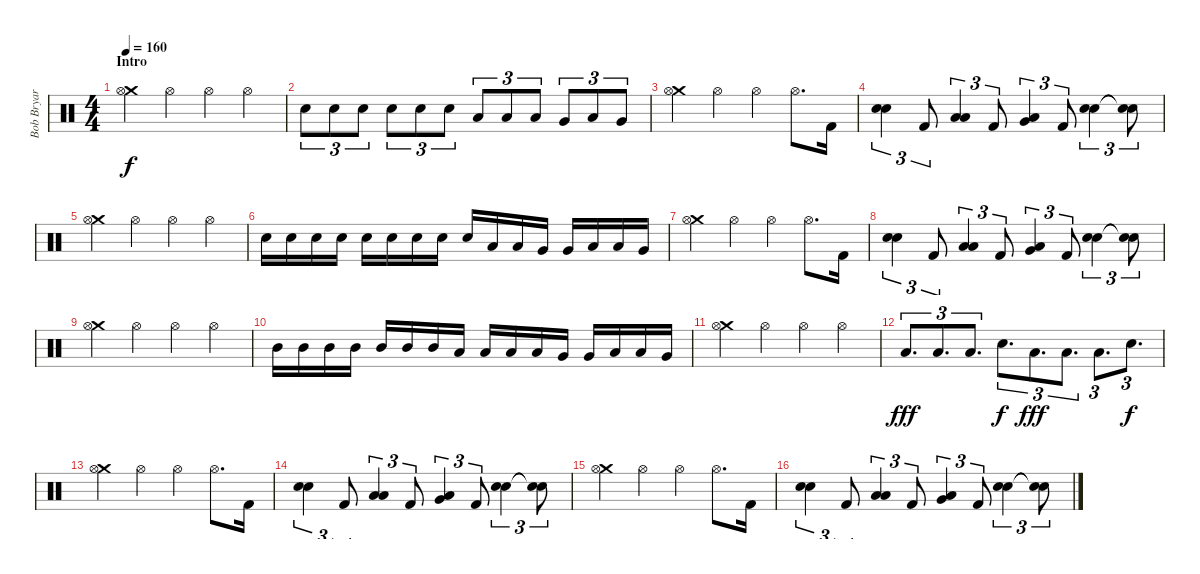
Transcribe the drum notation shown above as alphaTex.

\track ("Bob Bryar" "Bob Bryar") {instrument percussion}
\staff {score}
\articulation defaults
\ts (4 4)
\section ("" "Intro")
\tempo 160
\clef neutral
\ks c
("Crash medium (hit)" "Hi-Hat (open)").4{dy f} "Hi-Hat (open)".4 "Hi-Hat (open)".4 "Hi-Hat (open)".4 |
"Snare (hit) 2".8{tu (3 2)} "Snare (hit) 2".8{tu (3 2)} "Snare (hit) 2".8{tu (3 2)} "Snare (hit) 2".8{tu (3 2)} "Snare (hit) 2".8{tu (3 2)} "Snare (hit) 2".8{tu (3 2)} "Low Tom (hit)".8{tu (3 2)} "Low Tom (hit)".8{tu (3 2)} "Low Tom (hit)".8{tu (3 2)} "Very Low Tom (hit)".8{tu (3 2)} "Low Floor Tom (hit)".8{tu (3 2)} "Very Low Tom (hit)".8{tu (3 2)} |
("Crash medium (hit)" "Hi-Hat (open)").4 "Hi-Hat (open)".4 "Hi-Hat (open)".4 "Hi-Hat (open)".8{d} "Kick (hit) 2".16 |
("Electric Snare (hit)" "Snare (hit) 2").4{tu (3 2)} "Kick (hit) 2".8{tu (3 2)} ("Low Tom (hit)" "Low Floor Tom (hit)").4{tu (3 2)} "Kick (hit) 2".8{tu (3 2)} ("Very Low Tom (hit)" "Low Floor Tom (hit)").4{tu (3 2)} "Kick (hit) 2".8{tu (3 2)} ("Electric Snare (hit)" "Snare (hit) 2").4{tu (3 2)} ("Snare (hit)"{t} "Snare (hit)"{t}).8{tu (3 2)} |
("Crash medium (hit)" "Hi-Hat (open)").4 "Hi-Hat (open)".4 "Hi-Hat (open)".4 "Hi-Hat (open)".4 |
"Snare (hit) 2".16 "Snare (hit) 2".16 "Snare (hit) 2".16 "Snare (hit) 2".16 "Snare (hit) 2".16 "Snare (hit) 2".16 "Snare (hit) 2".16 "Snare (hit) 2".16 "Snare (hit) 2".16 "Low Tom (hit)".16 "Low Tom (hit)".16 "Very Low Tom (hit)".16 "Very Low Tom (hit)".16 "Low Floor Tom (hit)".16 "Low Floor Tom (hit)".16 "Very Low Tom (hit)".16 |
("Crash medium (hit)" "Hi-Hat (open)").4 "Hi-Hat (open)".4 "Hi-Hat (open)".4 "Hi-Hat (open)".8{d} "Kick (hit) 2".16 |
("Electric Snare (hit)" "Snare (hit) 2").4{tu (3 2)} "Kick (hit) 2".8{tu (3 2)} ("Low Tom (hit)" "Low Floor Tom (hit)").4{tu (3 2)} "Kick (hit) 2".8{tu (3 2)} ("Very Low Tom (hit)" "Low Floor Tom (hit)").4{tu (3 2)} "Kick (hit) 2".8{tu (3 2)} ("Electric Snare (hit)" "Snare (hit) 2").4{tu (3 2)} ("Snare (hit)"{t} "Snare (hit)"{t}).8{tu (3 2)} |
("Crash medium (hit)" "Hi-Hat (open)").4 "Hi-Hat (open)".4 "Hi-Hat (open)".4 "Hi-Hat (open)".4 |
"Mid Tom (hit)".16 "Mid Tom (hit)".16 "Mid Tom (hit)".16 "Mid Tom (hit)".16 "Mid Tom (hit)".16 "Mid Tom (hit)".16 "Mid Tom (hit)".16 "Low Floor Tom (hit)".16 "Low Tom (hit)".16 "Low Tom (hit)".16 "Low Tom (hit)".16 "Very Low Tom (hit)".16 "Very Low Tom (hit)".16 "Low Floor Tom (hit)".16 "Low Floor Tom (hit)".16 "Very Low Tom (hit)".16 |
("Crash medium (hit)" "Hi-Hat (open)").4 "Hi-Hat (open)".4 "Hi-Hat (open)".4 "Hi-Hat (open)".4 |
"Low Tom (hit)".8{d tu (3 2) dy fff} "Low Tom (hit)".8{d tu (3 2)} "Low Floor Tom (hit)".8{d tu (3 2)} "Snare (hit) 2".8{d tu (3 2) dy f} "Low Tom (hit)".8{d tu (3 2) dy fff} "Low Tom (hit)".8{d tu (3 2)} "Low Floor Tom (hit)".8{d tu (3 2)} "Snare (hit) 2".8{d tu (3 2) dy f} |
("Crash medium (hit)" "Hi-Hat (open)").4 "Hi-Hat (open)".4 "Hi-Hat (open)".4 "Hi-Hat (open)".8{d} "Kick (hit) 2".16 |
("Electric Snare (hit)" "Snare (hit) 2").4{tu (3 2)} "Kick (hit) 2".8{tu (3 2)} ("Low Tom (hit)" "Low Floor Tom (hit)").4{tu (3 2)} "Kick (hit) 2".8{tu (3 2)} ("Very Low Tom (hit)" "Low Floor Tom (hit)").4{tu (3 2)} "Kick (hit) 2".8{tu (3 2)} ("Electric Snare (hit)" "Snare (hit) 2").4{tu (3 2)} ("Snare (hit)"{t} "Snare (hit)"{t}).8{tu (3 2)} |
("Crash medium (hit)" "Hi-Hat (open)").4 "Hi-Hat (open)".4 "Hi-Hat (open)".4 "Hi-Hat (open)".8{d} "Kick (hit) 2".16 |
("Electric Snare (hit)" "Snare (hit) 2").4{tu (3 2)} "Kick (hit) 2".8{tu (3 2)} ("Low Tom (hit)" "Low Floor Tom (hit)").4{tu (3 2)} "Kick (hit) 2".8{tu (3 2)} ("Very Low Tom (hit)" "Low Floor Tom (hit)").4{tu (3 2)} "Kick (hit) 2".8{tu (3 2)} ("Electric Snare (hit)" "Snare (hit) 2").4{tu (3 2)} ("Snare (hit)"{t} "Snare (hit)"{t}).8{tu (3 2)}
